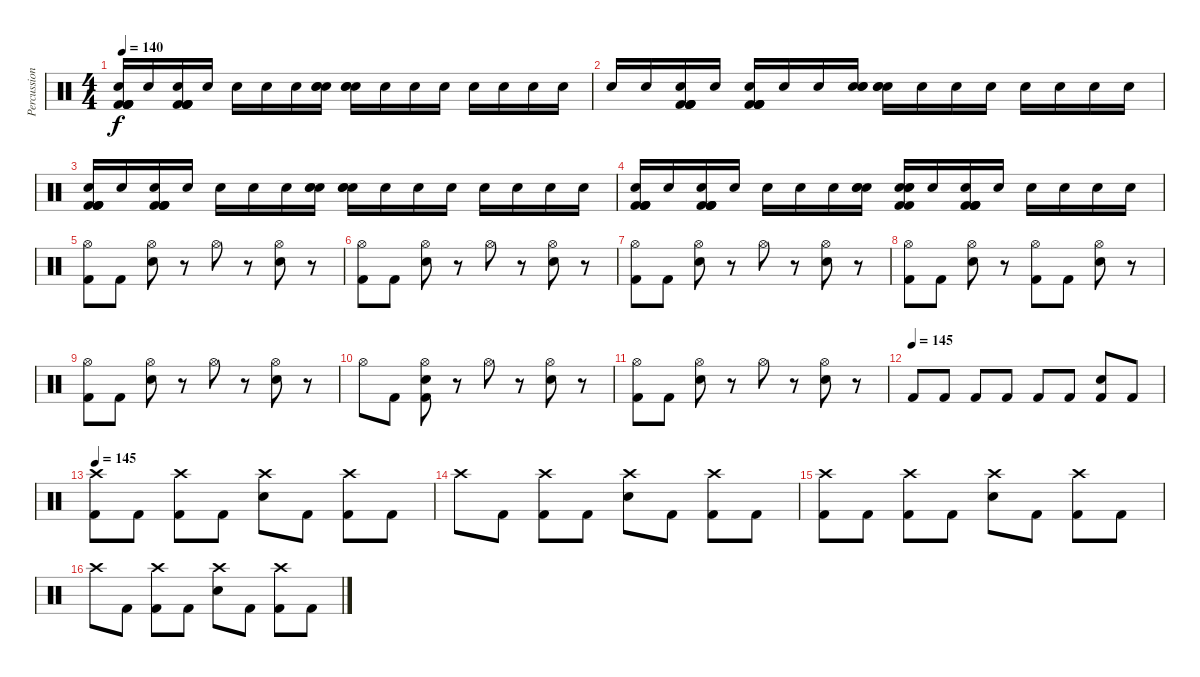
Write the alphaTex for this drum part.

\track ("Percussion" "Percussion") {instrument percussion}
\staff {score}
\articulation defaults
\ts (4 4)
\tempo 140
\clef neutral
\ks c
("Kick (hit) 2" "Kick (hit) 2" "Kick (hit) 2" "Snare (hit) 2" "Kick (hit) 2").16{dy f} "Snare (hit) 2".16 ("Kick (hit) 2" "Kick (hit) 2" "Kick (hit) 2" "Snare (hit) 2" "Kick (hit) 2").16 "Snare (hit) 2".16 "Snare (hit) 2".16 "Snare (hit) 2".16 "Snare (hit) 2".16 ("Electric Snare (hit)" "Snare (hit) 2" "Snare (hit) 2").16 ("Electric Snare (hit)" "Snare (hit) 2" "Snare (hit) 2").16 "Snare (hit) 2".16 "Snare (hit) 2".16 "Snare (hit) 2".16 "Snare (hit) 2".16 "Snare (hit) 2".16 "Snare (hit) 2".16 "Snare (hit) 2".16 |
"Snare (hit) 2".16 "Snare (hit) 2".16 ("Kick (hit) 2" "Kick (hit) 2" "Kick (hit) 2" "Snare (hit) 2" "Kick (hit) 2").16 "Snare (hit) 2".16 ("Kick (hit) 2" "Kick (hit) 2" "Kick (hit) 2" "Snare (hit) 2" "Kick (hit) 2").16 "Snare (hit) 2".16 "Snare (hit) 2".16 ("Electric Snare (hit)" "Snare (hit) 2" "Snare (hit) 2").16 ("Electric Snare (hit)" "Snare (hit) 2" "Snare (hit) 2").16 "Snare (hit) 2".16 "Snare (hit) 2".16 "Snare (hit) 2".16 "Snare (hit) 2".16 "Snare (hit) 2".16 "Snare (hit) 2".16 "Snare (hit) 2".16 |
("Kick (hit) 2" "Kick (hit) 2" "Kick (hit) 2" "Snare (hit) 2" "Kick (hit) 2").16 "Snare (hit) 2".16 ("Kick (hit) 2" "Kick (hit) 2" "Kick (hit) 2" "Snare (hit) 2" "Kick (hit) 2").16 "Snare (hit) 2".16 "Snare (hit) 2".16 "Snare (hit) 2".16 "Snare (hit) 2".16 ("Electric Snare (hit)" "Snare (hit) 2" "Snare (hit) 2").16 ("Electric Snare (hit)" "Snare (hit) 2" "Snare (hit) 2").16 "Snare (hit) 2".16 "Snare (hit) 2".16 "Snare (hit) 2".16 "Snare (hit) 2".16 "Snare (hit) 2".16 "Snare (hit) 2".16 "Snare (hit) 2".16 |
("Kick (hit) 2" "Kick (hit) 2" "Kick (hit) 2" "Snare (hit) 2" "Kick (hit) 2").16 "Snare (hit) 2".16 ("Kick (hit) 2" "Kick (hit) 2" "Kick (hit) 2" "Snare (hit) 2" "Kick (hit) 2").16 "Snare (hit) 2".16 "Snare (hit) 2".16 "Snare (hit) 2".16 "Snare (hit) 2".16 ("Electric Snare (hit)" "Snare (hit) 2" "Snare (hit) 2").16 ("Electric Snare (hit)" "Electric Snare (hit)" "Kick (hit) 2" "Snare (hit) 2" "Kick (hit) 2").16 "Snare (hit) 2".16 ("Kick (hit) 2" "Kick (hit) 2" "Kick (hit) 2" "Snare (hit) 2" "Kick (hit) 2").16 "Snare (hit) 2".16 "Snare (hit) 2".16 "Snare (hit) 2".16 "Snare (hit) 2".16 "Snare (hit) 2".16 |
("Hi-Hat (open)" "Kick (hit) 2").8{volume 12} "Kick (hit) 2".8 ("Hi-Hat (open)" "Snare (hit) 2").8 r.8 "Hi-Hat (open)".8 r.8 ("Hi-Hat (open)" "Snare (hit) 2").8 r.8 |
("Hi-Hat (open)" "Kick (hit) 2").8 "Kick (hit) 2".8 ("Hi-Hat (open)" "Snare (hit) 2").8 r.8 "Hi-Hat (open)".8 r.8 ("Hi-Hat (open)" "Snare (hit) 2").8 r.8 |
("Hi-Hat (open)" "Kick (hit) 2").8 "Kick (hit) 2".8 ("Hi-Hat (open)" "Snare (hit) 2").8 r.8 "Hi-Hat (open)".8 r.8 ("Hi-Hat (open)" "Snare (hit) 2").8 r.8 |
("Hi-Hat (open)" "Kick (hit) 2").8 "Kick (hit) 2".8 ("Hi-Hat (open)" "Snare (hit) 2").8 r.8 ("Hi-Hat (open)" "Kick (hit) 2").8 "Kick (hit) 2".8 ("Hi-Hat (open)" "Snare (hit) 2").8 r.8 |
("Hi-Hat (open)" "Kick (hit) 2").8 "Kick (hit) 2".8 ("Hi-Hat (open)" "Snare (hit) 2").8 r.8 "Hi-Hat (open)".8 r.8 ("Hi-Hat (open)" "Snare (hit) 2").8 r.8 |
"Hi-Hat (open)".8 "Kick (hit) 2".8 ("Hi-Hat (open)" "Snare (hit) 2" "Kick (hit) 2").8 r.8 "Hi-Hat (open)".8 r.8 ("Hi-Hat (open)" "Snare (hit) 2").8 r.8 |
("Hi-Hat (open)" "Kick (hit) 2").8 "Kick (hit) 2".8 ("Hi-Hat (open)" "Snare (hit) 2").8 r.8 "Hi-Hat (open)".8 r.8 ("Hi-Hat (open)" "Snare (hit) 2").8 r.8 |
\tempo (145)
"Kick (hit) 2".8 "Kick (hit) 2".8 "Kick (hit) 2".8 "Kick (hit) 2".8 "Kick (hit) 2".8 "Kick (hit) 2".8 ("Snare (hit) 2" "Kick (hit) 2").8 "Kick (hit) 2".8 |
\tempo 145
("Crash high (hit)" "Kick (hit) 2").8 "Kick (hit) 2".8 ("Crash high (hit)" "Kick (hit) 2").8 "Kick (hit) 2".8 ("Crash high (hit)" "Snare (hit) 2").8 "Kick (hit) 2".8 ("Crash high (hit)" "Kick (hit) 2").8 "Kick (hit) 2".8 |
"Crash high (hit)".8 "Kick (hit) 2".8 ("Crash high (hit)" "Kick (hit) 2").8 "Kick (hit) 2".8 ("Crash high (hit)" "Snare (hit) 2").8 "Kick (hit) 2".8 ("Crash high (hit)" "Kick (hit) 2").8 "Kick (hit) 2".8 |
("Crash high (hit)" "Kick (hit) 2").8 "Kick (hit) 2".8 ("Crash high (hit)" "Kick (hit) 2").8 "Kick (hit) 2".8 ("Crash high (hit)" "Snare (hit) 2").8 "Kick (hit) 2".8 ("Crash high (hit)" "Kick (hit) 2").8 "Kick (hit) 2".8 |
"Crash high (hit)".8 "Kick (hit) 2".8 ("Crash high (hit)" "Kick (hit) 2").8 "Kick (hit) 2".8 ("Crash high (hit)" "Snare (hit) 2").8 "Kick (hit) 2".8 ("Crash high (hit)" "Kick (hit) 2").8 "Kick (hit) 2".8
